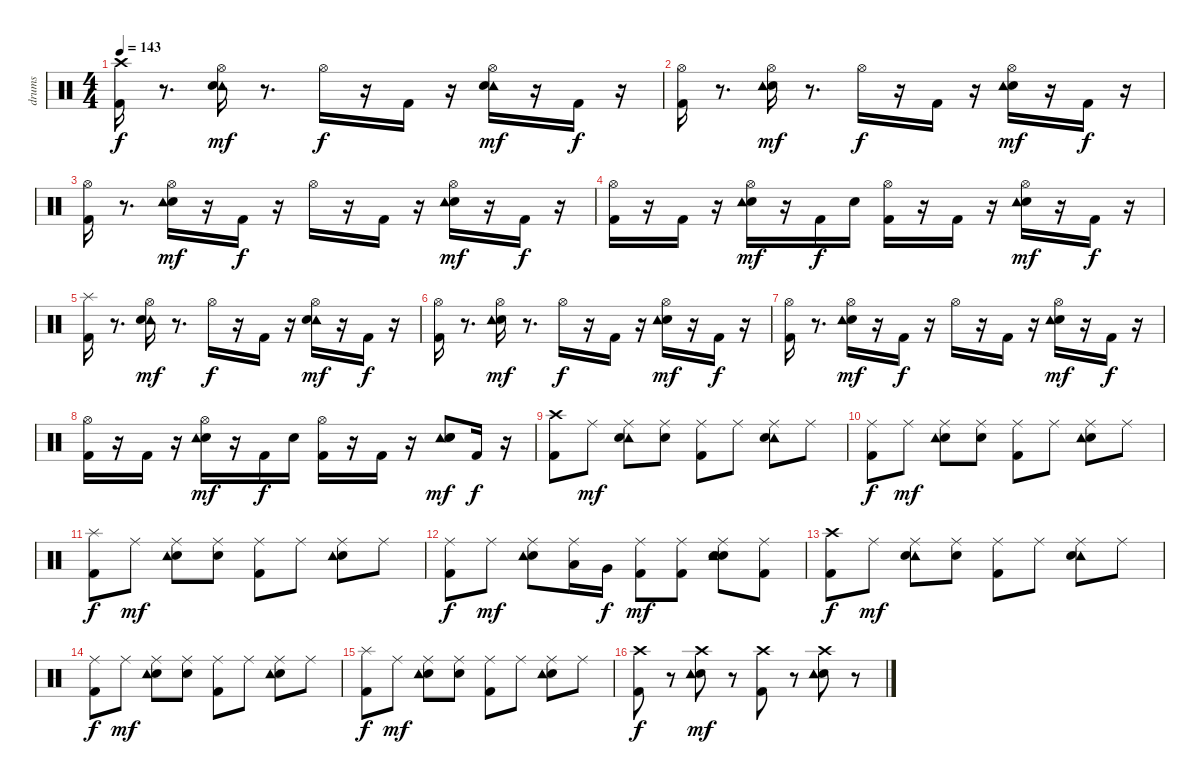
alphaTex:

\track ("drums" "drums") {instrument percussion}
\staff {score}
\articulation defaults
\ts (4 4)
\tempo 143
\clef neutral
\ks c
("Crash high (hit)" "Kick (hit) 2").16{dy f} r.8{d} ("Tambourine (hit)" "Snare (hit) 2" "Hi-Hat (open)").16{dy mf} r.8{d} "Hi-Hat (open)".16{dy f} r.16 "Kick (hit) 2".16 r.16 ("Tambourine (hit)" "Snare (hit) 2" "Hi-Hat (open)").16{dy mf} r.16 "Kick (hit) 2".16{dy f} r.16 |
("Kick (hit) 2" "Hi-Hat (open)").16 r.8{d} ("Snare (hit) 2" "Hi-Hat (open)" "Tambourine (hit)").16{dy mf} r.8{d} "Hi-Hat (open)".16{dy f} r.16 "Kick (hit) 2".16 r.16 ("Snare (hit) 2" "Hi-Hat (open)" "Tambourine (hit)").16{dy mf} r.16 "Kick (hit) 2".16{dy f} r.16 |
("Hi-Hat (open)" "Kick (hit) 2").16 r.8{d} ("Hi-Hat (open)" "Snare (hit) 2" "Tambourine (hit)").16{dy mf} r.16 "Kick (hit) 2".16{dy f} r.16 "Hi-Hat (open)".16 r.16 "Kick (hit) 2".16 r.16 ("Hi-Hat (open)" "Snare (hit) 2" "Tambourine (hit)").16{dy mf} r.16 "Kick (hit) 2".16{dy f} r.16 |
("Hi-Hat (open)" "Kick (hit) 2").16 r.16 "Kick (hit) 2".16 r.16 ("Hi-Hat (open)" "Snare (hit) 2" "Tambourine (hit)").16{dy mf} r.16 "Kick (hit) 2".16{dy f} "Snare (hit) 2".16 ("Hi-Hat (open)" "Kick (hit) 2").16 r.16 "Kick (hit) 2".16 r.16 ("Hi-Hat (open)" "Snare (hit) 2" "Tambourine (hit)").16{dy mf} r.16 "Kick (hit) 2".16{dy f} r.16 |
("Splash (hit)" "Kick (hit) 2").16 r.8{d} ("Tambourine (hit)" "Hi-Hat (open)" "Snare (hit) 2").16{dy mf} r.8{d} "Hi-Hat (open)".16{dy f} r.16 "Kick (hit) 2".16 r.16 ("Tambourine (hit)" "Hi-Hat (open)" "Snare (hit) 2").16{dy mf} r.16 "Kick (hit) 2".16{dy f} r.16 |
("Hi-Hat (open)" "Kick (hit) 2").16 r.8{d} ("Hi-Hat (open)" "Snare (hit) 2" "Tambourine (hit)").16{dy mf} r.8{d} "Hi-Hat (open)".16{dy f} r.16 "Kick (hit) 2".16 r.16 ("Hi-Hat (open)" "Snare (hit) 2" "Tambourine (hit)").16{dy mf} r.16 "Kick (hit) 2".16{dy f} r.16 |
("Kick (hit) 2" "Hi-Hat (open)").16 r.8{d} ("Snare (hit) 2" "Hi-Hat (open)" "Tambourine (hit)").16{dy mf} r.16 "Kick (hit) 2".16{dy f} r.16 "Hi-Hat (open)".16 r.16 "Kick (hit) 2".16 r.16 ("Snare (hit) 2" "Hi-Hat (open)" "Tambourine (hit)").16{dy mf} r.16 "Kick (hit) 2".16{dy f} r.16 |
("Kick (hit) 2" "Hi-Hat (open)").16 r.16 "Kick (hit) 2".16 r.16 ("Snare (hit) 2" "Hi-Hat (open)" "Tambourine (hit)").16{dy mf} r.16 "Kick (hit) 2".16{dy f} "Snare (hit) 2".16 ("Kick (hit) 2" "Hi-Hat (open)").16 r.16 "Kick (hit) 2".16 r.16 ("Tambourine (hit)" "Snare (hit) 2" "Snare (hit) 2").8{dy mf} "Kick (hit) 2".16{dy f} r.16 |
("Kick (hit) 2" "Crash high (hit)").8 "Ride (middle)".8{dy mf} ("Tambourine (hit)" "Ride (middle)" "Snare (hit) 2").8 ("Ride (middle)" "Snare (hit) 2").8 ("Kick (hit) 2" "Ride (middle)").8 "Ride (middle)".8 ("Tambourine (hit)" "Snare (hit) 2" "Ride (middle)").8 "Ride (middle)".8 |
("Ride (middle)" "Kick (hit) 2").8{dy f} "Ride (middle)".8{dy mf} ("Ride (middle)" "Snare (hit) 2" "Tambourine (hit)").8 ("Snare (hit) 2" "Ride (middle)").8 ("Kick (hit) 2" "Ride (middle)").8 "Ride (middle)".8 ("Snare (hit) 2" "Ride (middle)" "Tambourine (hit)").8 "Ride (middle)".8 |
("Splash (hit)" "Kick (hit) 2").8{dy f} "Ride (middle)".8{dy mf} ("Ride (middle)" "Snare (hit) 2" "Tambourine (hit)").8 ("Snare (hit) 2" "Ride (middle)").8 ("Kick (hit) 2" "Ride (middle)").8 "Ride (middle)".8 ("Snare (hit) 2" "Ride (middle)" "Tambourine (hit)").8 "Ride (middle)".8 |
("Ride (middle)" "Kick (hit) 2").8{dy f} "Ride (middle)".8{dy mf} ("Ride (middle)" "Snare (hit) 2" "Tambourine (hit)").8 ("Low Tom (hit)" "Ride (middle)").16 "Very Low Tom (hit)".16{dy f} ("Kick (hit) 2" "Ride (middle)").8{dy mf} ("Kick (hit) 2" "Ride (middle)").8 ("Snare (hit) 2" "Ride (middle)" "Tambourine (hit)" "Snare (hit) 2").8 ("Kick (hit) 2" "Ride (middle)").8 |
("Kick (hit) 2" "Crash high (hit)").8{dy f} "Ride (middle)".8{dy mf} ("Tambourine (hit)" "Snare (hit) 2" "Ride (middle)").8 ("Snare (hit) 2" "Ride (middle)").8 ("Ride (middle)" "Kick (hit) 2").8 "Ride (middle)".8 ("Tambourine (hit)" "Ride (middle)" "Snare (hit) 2").8 "Ride (middle)".8 |
("Kick (hit) 2" "Ride (middle)").8{dy f} "Ride (middle)".8{dy mf} ("Snare (hit) 2" "Ride (middle)" "Tambourine (hit)").8 ("Ride (middle)" "Snare (hit) 2").8 ("Ride (middle)" "Kick (hit) 2").8 "Ride (middle)".8 ("Ride (middle)" "Snare (hit) 2" "Tambourine (hit)").8 "Ride (middle)".8 |
("Kick (hit) 2" "Splash (hit)").8{dy f} "Ride (middle)".8{dy mf} ("Snare (hit) 2" "Ride (middle)" "Tambourine (hit)").8 ("Ride (middle)" "Snare (hit) 2").8 ("Ride (middle)" "Kick (hit) 2").8 "Ride (middle)".8 ("Ride (middle)" "Snare (hit) 2" "Tambourine (hit)").8 "Ride (middle)".8 |
("Crash high (hit)" "Kick (hit) 2").8{dy f} r.8 ("Crash high (hit)" "Snare (hit) 2" "Tambourine (hit)").8{dy mf} r.8 ("Kick (hit) 2" "Crash high (hit)").8 r.8 ("Crash high (hit)" "Snare (hit) 2" "Tambourine (hit)").8 r.8
